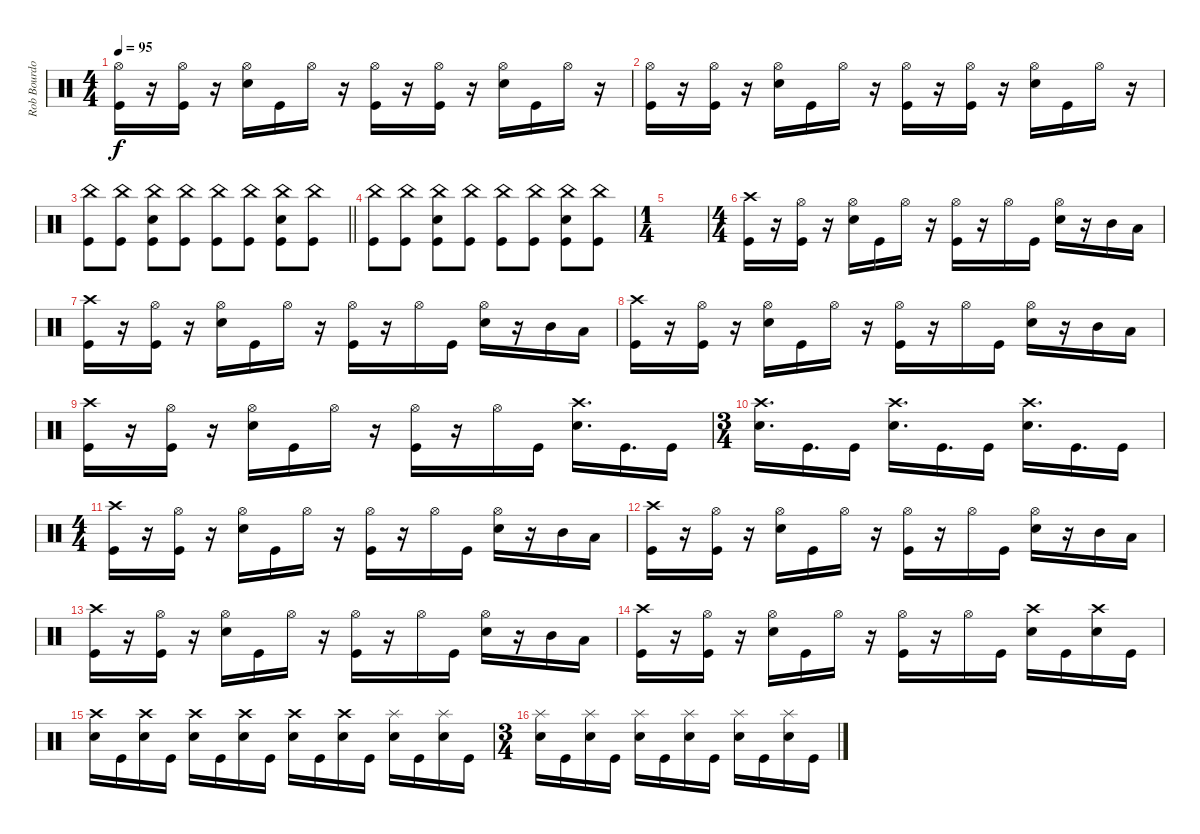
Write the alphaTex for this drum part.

\track ("Rob Bourdon" "Rob Bourdo") {instrument percussion}
\staff {score}
\articulation defaults
\ts (4 4)
\tempo 95
\clef neutral
\ks c
("Hi-Hat (open)" "Kick (hit)").16{dy f} r.16 ("Hi-Hat (open)" "Kick (hit)").16 r.16 ("Hi-Hat (open)" "Snare (hit) 2").16 "Kick (hit)".16 "Hi-Hat (open)".16 r.16 ("Hi-Hat (open)" "Kick (hit)").16 r.16 ("Hi-Hat (open)" "Kick (hit)").16 r.16 ("Hi-Hat (open)" "Snare (hit) 2").16 "Kick (hit)".16 "Hi-Hat (open)".16 r.16 |
("Hi-Hat (open)" "Kick (hit)").16 r.16 ("Hi-Hat (open)" "Kick (hit)").16 r.16 ("Hi-Hat (open)" "Snare (hit) 2").16 "Kick (hit)".16 "Hi-Hat (open)".16 r.16 ("Hi-Hat (open)" "Kick (hit)").16 r.16 ("Hi-Hat (open)" "Kick (hit)").16 r.16 ("Hi-Hat (open)" "Snare (hit) 2").16 "Kick (hit)".16 "Hi-Hat (open)".16 r.16 |
\barLineRight lightlight
("China (hit)" "Kick (hit)").8 ("China (hit)" "Kick (hit)").8 ("China (hit)" "Snare (hit) 2" "Kick (hit)").8 ("China (hit)" "Kick (hit)").8 ("China (hit)" "Kick (hit)").8 ("China (hit)" "Kick (hit)").8 ("China (hit)" "Snare (hit) 2" "Kick (hit)").8 ("China (hit)" "Kick (hit)").8 |
("China (hit)" "Kick (hit)").8 ("China (hit)" "Kick (hit)").8 ("China (hit)" "Snare (hit) 2" "Kick (hit)").8 ("China (hit)" "Kick (hit)").8 ("China (hit)" "Kick (hit)").8 ("China (hit)" "Kick (hit)").8 ("China (hit)" "Snare (hit) 2" "Kick (hit)").8 ("China (hit)" "Kick (hit)").8 |
\ts (1 4)
|
\ts (4 4)
("Crash high (hit)" "Kick (hit)").16 r.16 ("Hi-Hat (open)" "Kick (hit)").16 r.16 ("Hi-Hat (open)" "Snare (hit) 2").16 "Kick (hit)".16 "Hi-Hat (open)".16 r.16 ("Hi-Hat (open)" "Kick (hit)").16 r.16 "Hi-Hat (open)".16 "Kick (hit)".16 ("Hi-Hat (open)" "Snare (hit) 2").16 r.16 "Mid Tom (hit)".16 "Low Tom (hit)".16 |
("Crash high (hit)" "Kick (hit)").16 r.16 ("Hi-Hat (open)" "Kick (hit)").16 r.16 ("Hi-Hat (open)" "Snare (hit) 2").16 "Kick (hit)".16 "Hi-Hat (open)".16 r.16 ("Hi-Hat (open)" "Kick (hit)").16 r.16 "Hi-Hat (open)".16 "Kick (hit)".16 ("Hi-Hat (open)" "Snare (hit) 2").16 r.16 "Mid Tom (hit)".16 "Low Tom (hit)".16 |
("Crash high (hit)" "Kick (hit)").16 r.16 ("Hi-Hat (open)" "Kick (hit)").16 r.16 ("Hi-Hat (open)" "Snare (hit) 2").16 "Kick (hit)".16 "Hi-Hat (open)".16 r.16 ("Hi-Hat (open)" "Kick (hit)").16 r.16 "Hi-Hat (open)".16 "Kick (hit)".16 ("Hi-Hat (open)" "Snare (hit) 2").16 r.16 "Mid Tom (hit)".16 "Low Tom (hit)".16 |
("Crash high (hit)" "Kick (hit)").16 r.16 ("Hi-Hat (open)" "Kick (hit)").16 r.16 ("Hi-Hat (open)" "Snare (hit) 2").16 "Kick (hit)".16 "Hi-Hat (open)".16 r.16 ("Hi-Hat (open)" "Kick (hit)").16 r.16 "Hi-Hat (open)".16 "Kick (hit)".16 ("Crash high (hit)" "Snare (hit) 2").16{d} "Kick (hit)".16{d} "Kick (hit)".16 |
\ts (3 4)
("Crash high (hit)" "Snare (hit) 2").16{d} "Kick (hit)".16{d} "Kick (hit)".16 ("Crash high (hit)" "Snare (hit) 2").16{d} "Kick (hit)".16{d} "Kick (hit)".16 ("Crash high (hit)" "Snare (hit) 2").16{d} "Kick (hit)".16{d} "Kick (hit)".16 |
\ts (4 4)
("Crash high (hit)" "Kick (hit)").16 r.16 ("Hi-Hat (open)" "Kick (hit)").16 r.16 ("Hi-Hat (open)" "Snare (hit) 2").16 "Kick (hit)".16 "Hi-Hat (open)".16 r.16 ("Hi-Hat (open)" "Kick (hit)").16 r.16 "Hi-Hat (open)".16 "Kick (hit)".16 ("Hi-Hat (open)" "Snare (hit) 2").16 r.16 "Mid Tom (hit)".16 "Low Tom (hit)".16 |
("Crash high (hit)" "Kick (hit)").16 r.16 ("Hi-Hat (open)" "Kick (hit)").16 r.16 ("Hi-Hat (open)" "Snare (hit) 2").16 "Kick (hit)".16 "Hi-Hat (open)".16 r.16 ("Hi-Hat (open)" "Kick (hit)").16 r.16 "Hi-Hat (open)".16 "Kick (hit)".16 ("Hi-Hat (open)" "Snare (hit) 2").16 r.16 "Mid Tom (hit)".16 "Low Tom (hit)".16 |
("Crash high (hit)" "Kick (hit)").16 r.16 ("Hi-Hat (open)" "Kick (hit)").16 r.16 ("Hi-Hat (open)" "Snare (hit) 2").16 "Kick (hit)".16 "Hi-Hat (open)".16 r.16 ("Hi-Hat (open)" "Kick (hit)").16 r.16 "Hi-Hat (open)".16 "Kick (hit)".16 ("Hi-Hat (open)" "Snare (hit) 2").16 r.16 "Mid Tom (hit)".16 "Low Tom (hit)".16 |
("Crash high (hit)" "Kick (hit)").16 r.16 ("Hi-Hat (open)" "Kick (hit)").16 r.16 ("Hi-Hat (open)" "Snare (hit) 2").16 "Kick (hit)".16 "Hi-Hat (open)".16 r.16 ("Hi-Hat (open)" "Kick (hit)").16 r.16 "Hi-Hat (open)".16 "Kick (hit)".16 ("Crash high (hit)" "Snare (hit) 2").16 "Kick (hit)".16 ("Crash high (hit)" "Snare (hit) 2").16 "Kick (hit)".16 |
("Crash high (hit)" "Snare (hit) 2").16 "Kick (hit)".16 ("Crash high (hit)" "Snare (hit) 2").16 "Kick (hit)".16 ("Crash high (hit)" "Snare (hit) 2").16 "Kick (hit)".16 ("Crash high (hit)" "Snare (hit) 2").16 "Kick (hit)".16 ("Crash high (hit)" "Snare (hit) 2").16 "Kick (hit)".16 ("Crash high (hit)" "Snare (hit) 2").16 "Kick (hit)".16 ("Splash (hit)" "Snare (hit) 2").16 "Kick (hit)".16 ("Splash (hit)" "Snare (hit) 2").16 "Kick (hit)".16 |
\ts (3 4)
("Splash (hit)" "Snare (hit) 2").16 "Kick (hit)".16 ("Splash (hit)" "Snare (hit) 2").16 "Kick (hit)".16 ("Splash (hit)" "Snare (hit) 2").16 "Kick (hit)".16 ("Splash (hit)" "Snare (hit) 2").16 "Kick (hit)".16 ("Splash (hit)" "Snare (hit) 2").16 "Kick (hit)".16 ("Splash (hit)" "Snare (hit) 2").16 "Kick (hit)".16
